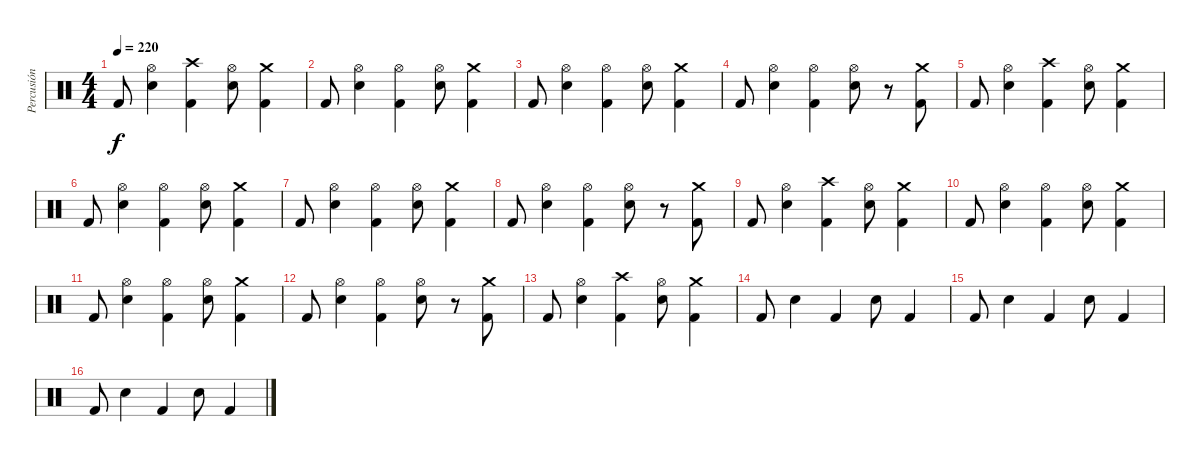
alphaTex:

\track ("Percusión" "Percusión") {instrument percussion}
\staff {score}
\articulation defaults
\ts (4 4)
\tempo 220
\clef neutral
\ks c "Kick (hit) 2".8{dy f}
("Hi-Hat (open)" "Snare (hit) 2").4 ("Crash high (hit)" "Kick (hit) 2").4 ("Hi-Hat (open)" "Snare (hit) 2").8 ("Crash medium (hit)" "Kick (hit) 2").4 |
"Kick (hit) 2".8 ("Hi-Hat (open)" "Snare (hit) 2").4 ("Hi-Hat (open)" "Kick (hit) 2").4 ("Hi-Hat (open)" "Snare (hit) 2").8 ("Crash medium (hit)" "Kick (hit) 2").4 |
"Kick (hit) 2".8 ("Hi-Hat (open)" "Snare (hit) 2").4 ("Hi-Hat (open)" "Kick (hit) 2").4 ("Hi-Hat (open)" "Snare (hit) 2").8 ("Crash medium (hit)" "Kick (hit) 2").4 |
"Kick (hit) 2".8 ("Hi-Hat (open)" "Snare (hit) 2").4 ("Hi-Hat (open)" "Kick (hit) 2").4 ("Hi-Hat (open)" "Snare (hit) 2").8 r.8 ("Crash medium (hit)" "Kick (hit) 2").8 |
"Kick (hit) 2".8 ("Hi-Hat (open)" "Snare (hit) 2").4 ("Crash high (hit)" "Kick (hit) 2").4 ("Hi-Hat (open)" "Snare (hit) 2").8 ("Crash medium (hit)" "Kick (hit) 2").4 |
"Kick (hit) 2".8 ("Hi-Hat (open)" "Snare (hit) 2").4 ("Hi-Hat (open)" "Kick (hit) 2").4 ("Hi-Hat (open)" "Snare (hit) 2").8 ("Crash medium (hit)" "Kick (hit) 2").4 |
"Kick (hit) 2".8 ("Hi-Hat (open)" "Snare (hit) 2").4 ("Hi-Hat (open)" "Kick (hit) 2").4 ("Hi-Hat (open)" "Snare (hit) 2").8 ("Crash medium (hit)" "Kick (hit) 2").4 |
"Kick (hit) 2".8 ("Hi-Hat (open)" "Snare (hit) 2").4 ("Hi-Hat (open)" "Kick (hit) 2").4 ("Hi-Hat (open)" "Snare (hit) 2").8 r.8 ("Crash medium (hit)" "Kick (hit) 2").8 |
"Kick (hit) 2".8 ("Hi-Hat (open)" "Snare (hit) 2").4 ("Crash high (hit)" "Kick (hit) 2").4 ("Hi-Hat (open)" "Snare (hit) 2").8 ("Crash medium (hit)" "Kick (hit) 2").4 |
"Kick (hit) 2".8 ("Hi-Hat (open)" "Snare (hit) 2").4 ("Hi-Hat (open)" "Kick (hit) 2").4 ("Hi-Hat (open)" "Snare (hit) 2").8 ("Crash medium (hit)" "Kick (hit) 2").4 |
"Kick (hit) 2".8 ("Hi-Hat (open)" "Snare (hit) 2").4 ("Hi-Hat (open)" "Kick (hit) 2").4 ("Hi-Hat (open)" "Snare (hit) 2").8 ("Crash medium (hit)" "Kick (hit) 2").4 |
"Kick (hit) 2".8 ("Hi-Hat (open)" "Snare (hit) 2").4 ("Hi-Hat (open)" "Kick (hit) 2").4 ("Hi-Hat (open)" "Snare (hit) 2").8 r.8 ("Crash medium (hit)" "Kick (hit) 2").8 |
"Kick (hit) 2".8 ("Hi-Hat (open)" "Snare (hit) 2").4 ("Crash high (hit)" "Kick (hit) 2").4 ("Hi-Hat (open)" "Snare (hit) 2").8 ("Crash medium (hit)" "Kick (hit) 2").4 |
"Kick (hit) 2".8 "Snare (hit) 2".4 "Kick (hit) 2".4 "Snare (hit) 2".8 "Kick (hit) 2".4 |
"Kick (hit) 2".8 "Snare (hit) 2".4 "Kick (hit) 2".4 "Snare (hit) 2".8 "Kick (hit) 2".4 |
"Kick (hit) 2".8 "Snare (hit) 2".4 "Kick (hit) 2".4 "Snare (hit) 2".8 "Kick (hit) 2".4
